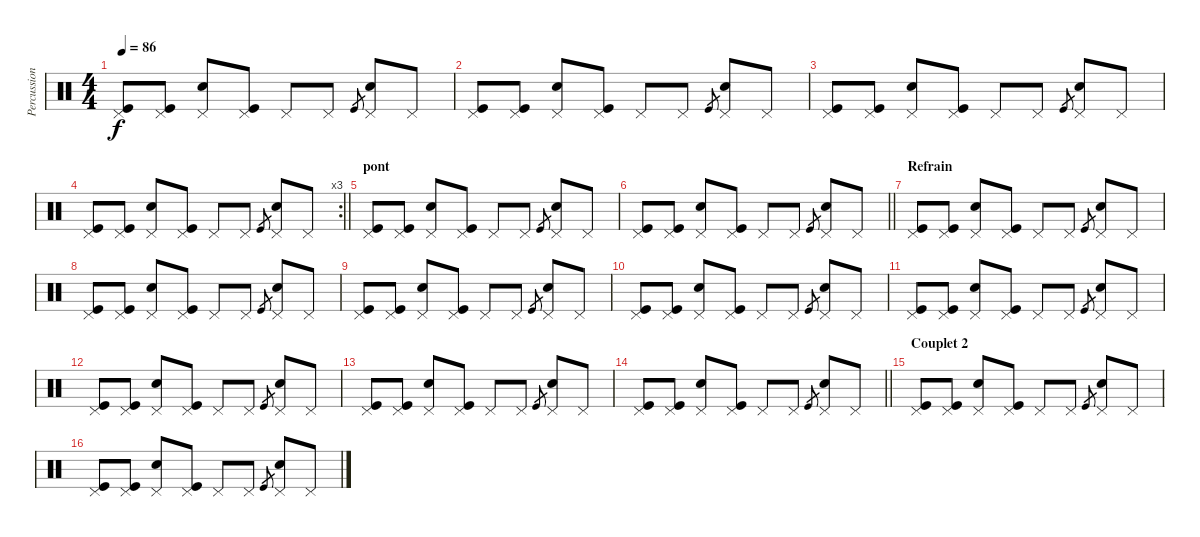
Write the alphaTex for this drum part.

\track ("Percussions" "Percussion") {instrument percussion}
\staff {score}
\articulation defaults
\ts (4 4)
\tempo 86
\clef neutral
\ks c
("Pedal Hi-Hat (hit)" "Kick (hit)").8{dy f} ("Pedal Hi-Hat (hit)" "Kick (hit)").8 ("Pedal Hi-Hat (hit)" "Electric Snare (hit)").8 ("Pedal Hi-Hat (hit)" "Kick (hit)").8 "Pedal Hi-Hat (hit)".8 "Pedal Hi-Hat (hit)".8 "Kick (hit)".8{gr} ("Pedal Hi-Hat (hit)" "Electric Snare (hit)").8 "Pedal Hi-Hat (hit)".8 |
("Pedal Hi-Hat (hit)" "Kick (hit)").8 ("Pedal Hi-Hat (hit)" "Kick (hit)").8 ("Pedal Hi-Hat (hit)" "Electric Snare (hit)").8 ("Pedal Hi-Hat (hit)" "Kick (hit)").8 "Pedal Hi-Hat (hit)".8 "Pedal Hi-Hat (hit)".8 "Kick (hit)".8{gr} ("Pedal Hi-Hat (hit)" "Electric Snare (hit)").8 "Pedal Hi-Hat (hit)".8 |
("Pedal Hi-Hat (hit)" "Kick (hit)").8 ("Pedal Hi-Hat (hit)" "Kick (hit)").8 ("Pedal Hi-Hat (hit)" "Electric Snare (hit)").8 ("Pedal Hi-Hat (hit)" "Kick (hit)").8 "Pedal Hi-Hat (hit)".8 "Pedal Hi-Hat (hit)".8 "Kick (hit)".8{gr} ("Pedal Hi-Hat (hit)" "Electric Snare (hit)").8 "Pedal Hi-Hat (hit)".8 |
\rc 3
\barLineRight lightlight
("Pedal Hi-Hat (hit)" "Kick (hit)").8 ("Pedal Hi-Hat (hit)" "Kick (hit)").8 ("Pedal Hi-Hat (hit)" "Electric Snare (hit)").8 ("Pedal Hi-Hat (hit)" "Kick (hit)").8 "Pedal Hi-Hat (hit)".8 "Pedal Hi-Hat (hit)".8 "Kick (hit)".8{gr} ("Pedal Hi-Hat (hit)" "Electric Snare (hit)").8 "Pedal Hi-Hat (hit)".8 |
\section ("" "pont")
("Pedal Hi-Hat (hit)" "Kick (hit)").8 ("Pedal Hi-Hat (hit)" "Kick (hit)").8 ("Pedal Hi-Hat (hit)" "Electric Snare (hit)").8 ("Pedal Hi-Hat (hit)" "Kick (hit)").8 "Pedal Hi-Hat (hit)".8 "Pedal Hi-Hat (hit)".8 "Kick (hit)".8{gr} ("Pedal Hi-Hat (hit)" "Electric Snare (hit)").8 "Pedal Hi-Hat (hit)".8 |
\barLineRight lightlight
("Pedal Hi-Hat (hit)" "Kick (hit)").8 ("Pedal Hi-Hat (hit)" "Kick (hit)").8 ("Pedal Hi-Hat (hit)" "Electric Snare (hit)").8 ("Pedal Hi-Hat (hit)" "Kick (hit)").8 "Pedal Hi-Hat (hit)".8 "Pedal Hi-Hat (hit)".8 "Kick (hit)".8{gr} ("Pedal Hi-Hat (hit)" "Electric Snare (hit)").8 "Pedal Hi-Hat (hit)".8 |
\section ("" "Refrain")
("Pedal Hi-Hat (hit)" "Kick (hit)").8 ("Pedal Hi-Hat (hit)" "Kick (hit)").8 ("Pedal Hi-Hat (hit)" "Electric Snare (hit)").8 ("Pedal Hi-Hat (hit)" "Kick (hit)").8 "Pedal Hi-Hat (hit)".8 "Pedal Hi-Hat (hit)".8 "Kick (hit)".8{gr} ("Pedal Hi-Hat (hit)" "Electric Snare (hit)").8 "Pedal Hi-Hat (hit)".8 |
("Pedal Hi-Hat (hit)" "Kick (hit)").8 ("Pedal Hi-Hat (hit)" "Kick (hit)").8 ("Pedal Hi-Hat (hit)" "Electric Snare (hit)").8 ("Pedal Hi-Hat (hit)" "Kick (hit)").8 "Pedal Hi-Hat (hit)".8 "Pedal Hi-Hat (hit)".8 "Kick (hit)".8{gr} ("Pedal Hi-Hat (hit)" "Electric Snare (hit)").8 "Pedal Hi-Hat (hit)".8 |
("Pedal Hi-Hat (hit)" "Kick (hit)").8 ("Pedal Hi-Hat (hit)" "Kick (hit)").8 ("Pedal Hi-Hat (hit)" "Electric Snare (hit)").8 ("Pedal Hi-Hat (hit)" "Kick (hit)").8 "Pedal Hi-Hat (hit)".8 "Pedal Hi-Hat (hit)".8 "Kick (hit)".8{gr} ("Pedal Hi-Hat (hit)" "Electric Snare (hit)").8 "Pedal Hi-Hat (hit)".8 |
("Pedal Hi-Hat (hit)" "Kick (hit)").8 ("Pedal Hi-Hat (hit)" "Kick (hit)").8 ("Pedal Hi-Hat (hit)" "Electric Snare (hit)").8 ("Pedal Hi-Hat (hit)" "Kick (hit)").8 "Pedal Hi-Hat (hit)".8 "Pedal Hi-Hat (hit)".8 "Kick (hit)".8{gr} ("Pedal Hi-Hat (hit)" "Electric Snare (hit)").8 "Pedal Hi-Hat (hit)".8 |
("Pedal Hi-Hat (hit)" "Kick (hit)").8 ("Pedal Hi-Hat (hit)" "Kick (hit)").8 ("Pedal Hi-Hat (hit)" "Electric Snare (hit)").8 ("Pedal Hi-Hat (hit)" "Kick (hit)").8 "Pedal Hi-Hat (hit)".8 "Pedal Hi-Hat (hit)".8 "Kick (hit)".8{gr} ("Pedal Hi-Hat (hit)" "Electric Snare (hit)").8 "Pedal Hi-Hat (hit)".8 |
("Pedal Hi-Hat (hit)" "Kick (hit)").8 ("Pedal Hi-Hat (hit)" "Kick (hit)").8 ("Pedal Hi-Hat (hit)" "Electric Snare (hit)").8 ("Pedal Hi-Hat (hit)" "Kick (hit)").8 "Pedal Hi-Hat (hit)".8 "Pedal Hi-Hat (hit)".8 "Kick (hit)".8{gr} ("Pedal Hi-Hat (hit)" "Electric Snare (hit)").8 "Pedal Hi-Hat (hit)".8 |
("Pedal Hi-Hat (hit)" "Kick (hit)").8 ("Pedal Hi-Hat (hit)" "Kick (hit)").8 ("Pedal Hi-Hat (hit)" "Electric Snare (hit)").8 ("Pedal Hi-Hat (hit)" "Kick (hit)").8 "Pedal Hi-Hat (hit)".8 "Pedal Hi-Hat (hit)".8 "Kick (hit)".8{gr} ("Pedal Hi-Hat (hit)" "Electric Snare (hit)").8 "Pedal Hi-Hat (hit)".8 |
\barLineRight lightlight
("Pedal Hi-Hat (hit)" "Kick (hit)").8 ("Pedal Hi-Hat (hit)" "Kick (hit)").8 ("Pedal Hi-Hat (hit)" "Electric Snare (hit)").8 ("Pedal Hi-Hat (hit)" "Kick (hit)").8 "Pedal Hi-Hat (hit)".8 "Pedal Hi-Hat (hit)".8 "Kick (hit)".8{gr} ("Pedal Hi-Hat (hit)" "Electric Snare (hit)").8 "Pedal Hi-Hat (hit)".8 |
\section ("" "Couplet 2")
("Pedal Hi-Hat (hit)" "Kick (hit)").8 ("Pedal Hi-Hat (hit)" "Kick (hit)").8 ("Pedal Hi-Hat (hit)" "Electric Snare (hit)").8 ("Pedal Hi-Hat (hit)" "Kick (hit)").8 "Pedal Hi-Hat (hit)".8 "Pedal Hi-Hat (hit)".8 "Kick (hit)".8{gr} ("Pedal Hi-Hat (hit)" "Electric Snare (hit)").8 "Pedal Hi-Hat (hit)".8 |
("Pedal Hi-Hat (hit)" "Kick (hit)").8 ("Pedal Hi-Hat (hit)" "Kick (hit)").8 ("Pedal Hi-Hat (hit)" "Electric Snare (hit)").8 ("Pedal Hi-Hat (hit)" "Kick (hit)").8 "Pedal Hi-Hat (hit)".8 "Pedal Hi-Hat (hit)".8 "Kick (hit)".8{gr} ("Pedal Hi-Hat (hit)" "Electric Snare (hit)").8 "Pedal Hi-Hat (hit)".8
